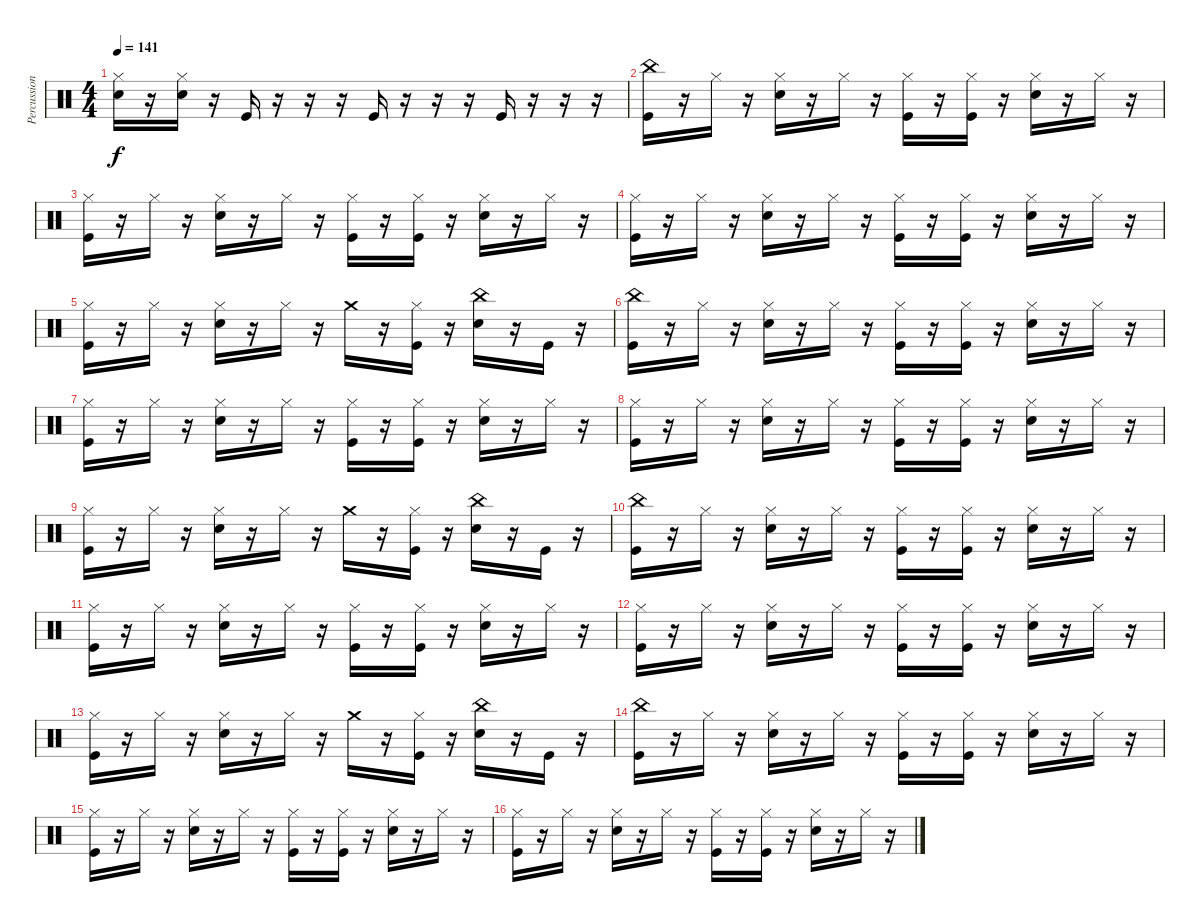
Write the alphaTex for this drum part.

\track ("Percussion" "Percussion") {instrument percussion}
\staff {score}
\articulation defaults
\ts (4 4)
\tempo 141
\clef neutral
\ks c
("Hi-Hat (closed)" "Electric Snare (hit)").16{dy f} r.16 ("Hi-Hat (closed)" "Electric Snare (hit)").16 r.16 "Kick (hit)".16 r.16 r.16 r.16 "Kick (hit)".16 r.16 r.16 r.16 "Kick (hit)".16 r.16 r.16 r.16 |
("China (hit)" "Kick (hit)").16 r.16 "Hi-Hat (closed)".16 r.16 ("Hi-Hat (closed)" "Electric Snare (hit)").16 r.16 "Hi-Hat (closed)".16 r.16 ("Hi-Hat (closed)" "Kick (hit)").16 r.16 ("Hi-Hat (closed)" "Kick (hit)").16 r.16 ("Hi-Hat (closed)" "Electric Snare (hit)").16 r.16 "Hi-Hat (closed)".16 r.16 |
("Hi-Hat (closed)" "Kick (hit)").16 r.16 "Hi-Hat (closed)".16 r.16 ("Hi-Hat (closed)" "Electric Snare (hit)").16 r.16 "Hi-Hat (closed)".16 r.16 ("Hi-Hat (closed)" "Kick (hit)").16 r.16 ("Hi-Hat (closed)" "Kick (hit)").16 r.16 ("Hi-Hat (closed)" "Electric Snare (hit)").16 r.16 "Hi-Hat (closed)".16 r.16 |
("Hi-Hat (closed)" "Kick (hit)").16 r.16 "Hi-Hat (closed)".16 r.16 ("Hi-Hat (closed)" "Electric Snare (hit)").16 r.16 "Hi-Hat (closed)".16 r.16 ("Hi-Hat (closed)" "Kick (hit)").16 r.16 ("Hi-Hat (closed)" "Kick (hit)").16 r.16 ("Hi-Hat (closed)" "Electric Snare (hit)").16 r.16 "Hi-Hat (closed)".16 r.16 |
("Hi-Hat (closed)" "Kick (hit)").16 r.16 "Hi-Hat (closed)".16 r.16 ("Hi-Hat (closed)" "Electric Snare (hit)").16 r.16 "Hi-Hat (closed)".16 r.16 "Crash medium (hit)".16 r.16 ("Hi-Hat (closed)" "Kick (hit)").16 r.16 ("China (hit)" "Electric Snare (hit)").16 r.16 "Kick (hit)".16 r.16 |
("China (hit)" "Kick (hit)").16 r.16 "Hi-Hat (closed)".16 r.16 ("Hi-Hat (closed)" "Electric Snare (hit)").16 r.16 "Hi-Hat (closed)".16 r.16 ("Hi-Hat (closed)" "Kick (hit)").16 r.16 ("Hi-Hat (closed)" "Kick (hit)").16 r.16 ("Hi-Hat (closed)" "Electric Snare (hit)").16 r.16 "Hi-Hat (closed)".16 r.16 |
("Hi-Hat (closed)" "Kick (hit)").16 r.16 "Hi-Hat (closed)".16 r.16 ("Hi-Hat (closed)" "Electric Snare (hit)").16 r.16 "Hi-Hat (closed)".16 r.16 ("Hi-Hat (closed)" "Kick (hit)").16 r.16 ("Hi-Hat (closed)" "Kick (hit)").16 r.16 ("Hi-Hat (closed)" "Electric Snare (hit)").16 r.16 "Hi-Hat (closed)".16 r.16 |
("Hi-Hat (closed)" "Kick (hit)").16 r.16 "Hi-Hat (closed)".16 r.16 ("Hi-Hat (closed)" "Electric Snare (hit)").16 r.16 "Hi-Hat (closed)".16 r.16 ("Hi-Hat (closed)" "Kick (hit)").16 r.16 ("Hi-Hat (closed)" "Kick (hit)").16 r.16 ("Hi-Hat (closed)" "Electric Snare (hit)").16 r.16 "Hi-Hat (closed)".16 r.16 |
("Hi-Hat (closed)" "Kick (hit)").16 r.16 "Hi-Hat (closed)".16 r.16 ("Hi-Hat (closed)" "Electric Snare (hit)").16 r.16 "Hi-Hat (closed)".16 r.16 "Crash medium (hit)".16 r.16 ("Hi-Hat (closed)" "Kick (hit)").16 r.16 ("China (hit)" "Electric Snare (hit)").16 r.16 "Kick (hit)".16 r.16 |
("China (hit)" "Kick (hit)").16 r.16 "Hi-Hat (closed)".16 r.16 ("Hi-Hat (closed)" "Electric Snare (hit)").16 r.16 "Hi-Hat (closed)".16 r.16 ("Hi-Hat (closed)" "Kick (hit)").16 r.16 ("Hi-Hat (closed)" "Kick (hit)").16 r.16 ("Hi-Hat (closed)" "Electric Snare (hit)").16 r.16 "Hi-Hat (closed)".16 r.16 |
("Hi-Hat (closed)" "Kick (hit)").16 r.16 "Hi-Hat (closed)".16 r.16 ("Hi-Hat (closed)" "Electric Snare (hit)").16 r.16 "Hi-Hat (closed)".16 r.16 ("Hi-Hat (closed)" "Kick (hit)").16 r.16 ("Hi-Hat (closed)" "Kick (hit)").16 r.16 ("Hi-Hat (closed)" "Electric Snare (hit)").16 r.16 "Hi-Hat (closed)".16 r.16 |
("Hi-Hat (closed)" "Kick (hit)").16 r.16 "Hi-Hat (closed)".16 r.16 ("Hi-Hat (closed)" "Electric Snare (hit)").16 r.16 "Hi-Hat (closed)".16 r.16 ("Hi-Hat (closed)" "Kick (hit)").16 r.16 ("Hi-Hat (closed)" "Kick (hit)").16 r.16 ("Hi-Hat (closed)" "Electric Snare (hit)").16 r.16 "Hi-Hat (closed)".16 r.16 |
("Hi-Hat (closed)" "Kick (hit)").16 r.16 "Hi-Hat (closed)".16 r.16 ("Hi-Hat (closed)" "Electric Snare (hit)").16 r.16 "Hi-Hat (closed)".16 r.16 "Crash medium (hit)".16 r.16 ("Hi-Hat (closed)" "Kick (hit)").16 r.16 ("China (hit)" "Electric Snare (hit)").16 r.16 "Kick (hit)".16 r.16 |
("China (hit)" "Kick (hit)").16 r.16 "Hi-Hat (closed)".16 r.16 ("Hi-Hat (closed)" "Electric Snare (hit)").16 r.16 "Hi-Hat (closed)".16 r.16 ("Hi-Hat (closed)" "Kick (hit)").16 r.16 ("Hi-Hat (closed)" "Kick (hit)").16 r.16 ("Hi-Hat (closed)" "Electric Snare (hit)").16 r.16 "Hi-Hat (closed)".16 r.16 |
("Hi-Hat (closed)" "Kick (hit)").16 r.16 "Hi-Hat (closed)".16 r.16 ("Hi-Hat (closed)" "Electric Snare (hit)").16 r.16 "Hi-Hat (closed)".16 r.16 ("Hi-Hat (closed)" "Kick (hit)").16 r.16 ("Hi-Hat (closed)" "Kick (hit)").16 r.16 ("Hi-Hat (closed)" "Electric Snare (hit)").16 r.16 "Hi-Hat (closed)".16 r.16 |
("Hi-Hat (closed)" "Kick (hit)").16 r.16 "Hi-Hat (closed)".16 r.16 ("Hi-Hat (closed)" "Electric Snare (hit)").16 r.16 "Hi-Hat (closed)".16 r.16 ("Hi-Hat (closed)" "Kick (hit)").16 r.16 ("Hi-Hat (closed)" "Kick (hit)").16 r.16 ("Hi-Hat (closed)" "Electric Snare (hit)").16 r.16 "Hi-Hat (closed)".16 r.16
